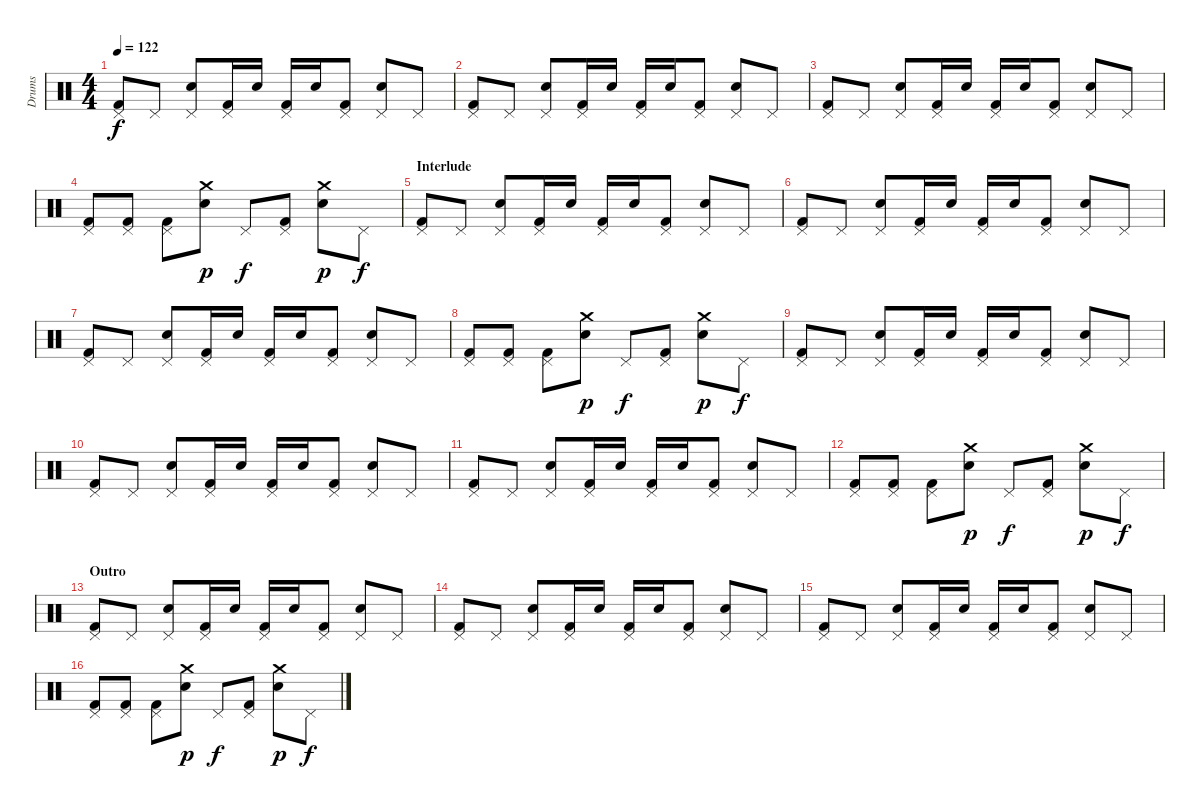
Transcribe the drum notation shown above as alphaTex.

\track ("Drums" "Drums") {instrument percussion}
\staff {score}
\articulation defaults
\ts (4 4)
\tempo 122
\clef neutral
\ks c
("Pedal Hi-Hat (hit)" "Kick (hit) 2").8{dy f} "Pedal Hi-Hat (hit)".8 ("Pedal Hi-Hat (hit)" "Electric Snare (hit)").8 ("Pedal Hi-Hat (hit)" "Kick (hit) 2").16 "Electric Snare (hit)".16 ("Pedal Hi-Hat (hit)" "Kick (hit) 2").16 "Electric Snare (hit)".16 ("Pedal Hi-Hat (hit)" "Kick (hit) 2").8 ("Pedal Hi-Hat (hit)" "Electric Snare (hit)").8 "Pedal Hi-Hat (hit)".8 |
("Pedal Hi-Hat (hit)" "Kick (hit) 2").8 "Pedal Hi-Hat (hit)".8 ("Pedal Hi-Hat (hit)" "Electric Snare (hit)").8 ("Pedal Hi-Hat (hit)" "Kick (hit) 2").16 "Electric Snare (hit)".16 ("Pedal Hi-Hat (hit)" "Kick (hit) 2").16 "Electric Snare (hit)".16 ("Pedal Hi-Hat (hit)" "Kick (hit) 2").8 ("Pedal Hi-Hat (hit)" "Electric Snare (hit)").8 "Pedal Hi-Hat (hit)".8 |
("Pedal Hi-Hat (hit)" "Kick (hit) 2").8 "Pedal Hi-Hat (hit)".8 ("Pedal Hi-Hat (hit)" "Electric Snare (hit)").8 ("Pedal Hi-Hat (hit)" "Kick (hit) 2").16 "Electric Snare (hit)".16 ("Pedal Hi-Hat (hit)" "Kick (hit) 2").16 "Electric Snare (hit)".16 ("Pedal Hi-Hat (hit)" "Kick (hit) 2").8 ("Pedal Hi-Hat (hit)" "Electric Snare (hit)").8 "Pedal Hi-Hat (hit)".8 |
("Pedal Hi-Hat (hit)" "Kick (hit) 2").8 ("Pedal Hi-Hat (hit)" "Kick (hit) 2").8 ("Pedal Hi-Hat (hit)" "Kick (hit) 2").8 ("Crash medium (hit)" "Electric Snare (hit)").8{dy p} "Pedal Hi-Hat (hit)".8{dy f} ("Pedal Hi-Hat (hit)" "Kick (hit) 2").8 ("Crash medium (hit)" "Electric Snare (hit)").8{dy p} "Pedal Hi-Hat (hit)".8{dy f} |
\section ("" "Interlude")
("Pedal Hi-Hat (hit)" "Kick (hit) 2").8 "Pedal Hi-Hat (hit)".8 ("Pedal Hi-Hat (hit)" "Electric Snare (hit)").8 ("Pedal Hi-Hat (hit)" "Kick (hit) 2").16 "Electric Snare (hit)".16 ("Pedal Hi-Hat (hit)" "Kick (hit) 2").16 "Electric Snare (hit)".16 ("Pedal Hi-Hat (hit)" "Kick (hit) 2").8 ("Pedal Hi-Hat (hit)" "Electric Snare (hit)").8 "Pedal Hi-Hat (hit)".8 |
("Pedal Hi-Hat (hit)" "Kick (hit) 2").8 "Pedal Hi-Hat (hit)".8 ("Pedal Hi-Hat (hit)" "Electric Snare (hit)").8 ("Pedal Hi-Hat (hit)" "Kick (hit) 2").16 "Electric Snare (hit)".16 ("Pedal Hi-Hat (hit)" "Kick (hit) 2").16 "Electric Snare (hit)".16 ("Pedal Hi-Hat (hit)" "Kick (hit) 2").8 ("Pedal Hi-Hat (hit)" "Electric Snare (hit)").8 "Pedal Hi-Hat (hit)".8 |
("Pedal Hi-Hat (hit)" "Kick (hit) 2").8 "Pedal Hi-Hat (hit)".8 ("Pedal Hi-Hat (hit)" "Electric Snare (hit)").8 ("Pedal Hi-Hat (hit)" "Kick (hit) 2").16 "Electric Snare (hit)".16 ("Pedal Hi-Hat (hit)" "Kick (hit) 2").16 "Electric Snare (hit)".16 ("Pedal Hi-Hat (hit)" "Kick (hit) 2").8 ("Pedal Hi-Hat (hit)" "Electric Snare (hit)").8 "Pedal Hi-Hat (hit)".8 |
("Pedal Hi-Hat (hit)" "Kick (hit) 2").8 ("Pedal Hi-Hat (hit)" "Kick (hit) 2").8 ("Pedal Hi-Hat (hit)" "Kick (hit) 2").8 ("Crash medium (hit)" "Electric Snare (hit)").8{dy p} "Pedal Hi-Hat (hit)".8{dy f} ("Pedal Hi-Hat (hit)" "Kick (hit) 2").8 ("Crash medium (hit)" "Electric Snare (hit)").8{dy p} "Pedal Hi-Hat (hit)".8{dy f} |
("Pedal Hi-Hat (hit)" "Kick (hit) 2").8 "Pedal Hi-Hat (hit)".8 ("Pedal Hi-Hat (hit)" "Electric Snare (hit)").8 ("Pedal Hi-Hat (hit)" "Kick (hit) 2").16 "Electric Snare (hit)".16 ("Pedal Hi-Hat (hit)" "Kick (hit) 2").16 "Electric Snare (hit)".16 ("Pedal Hi-Hat (hit)" "Kick (hit) 2").8 ("Pedal Hi-Hat (hit)" "Electric Snare (hit)").8 "Pedal Hi-Hat (hit)".8 |
("Pedal Hi-Hat (hit)" "Kick (hit) 2").8 "Pedal Hi-Hat (hit)".8 ("Pedal Hi-Hat (hit)" "Electric Snare (hit)").8 ("Pedal Hi-Hat (hit)" "Kick (hit) 2").16 "Electric Snare (hit)".16 ("Pedal Hi-Hat (hit)" "Kick (hit) 2").16 "Electric Snare (hit)".16 ("Pedal Hi-Hat (hit)" "Kick (hit) 2").8 ("Pedal Hi-Hat (hit)" "Electric Snare (hit)").8 "Pedal Hi-Hat (hit)".8 |
("Pedal Hi-Hat (hit)" "Kick (hit) 2").8 "Pedal Hi-Hat (hit)".8 ("Pedal Hi-Hat (hit)" "Electric Snare (hit)").8 ("Pedal Hi-Hat (hit)" "Kick (hit) 2").16 "Electric Snare (hit)".16 ("Pedal Hi-Hat (hit)" "Kick (hit) 2").16 "Electric Snare (hit)".16 ("Pedal Hi-Hat (hit)" "Kick (hit) 2").8 ("Pedal Hi-Hat (hit)" "Electric Snare (hit)").8 "Pedal Hi-Hat (hit)".8 |
("Pedal Hi-Hat (hit)" "Kick (hit) 2").8 ("Pedal Hi-Hat (hit)" "Kick (hit) 2").8 ("Pedal Hi-Hat (hit)" "Kick (hit) 2").8 ("Crash medium (hit)" "Electric Snare (hit)").8{dy p} "Pedal Hi-Hat (hit)".8{dy f} ("Pedal Hi-Hat (hit)" "Kick (hit) 2").8 ("Crash medium (hit)" "Electric Snare (hit)").8{dy p} "Pedal Hi-Hat (hit)".8{dy f} |
\section ("" "Outro")
("Pedal Hi-Hat (hit)" "Kick (hit) 2").8 "Pedal Hi-Hat (hit)".8 ("Pedal Hi-Hat (hit)" "Electric Snare (hit)").8 ("Pedal Hi-Hat (hit)" "Kick (hit) 2").16 "Electric Snare (hit)".16 ("Pedal Hi-Hat (hit)" "Kick (hit) 2").16 "Electric Snare (hit)".16 ("Pedal Hi-Hat (hit)" "Kick (hit) 2").8 ("Pedal Hi-Hat (hit)" "Electric Snare (hit)").8 "Pedal Hi-Hat (hit)".8 |
("Pedal Hi-Hat (hit)" "Kick (hit) 2").8 "Pedal Hi-Hat (hit)".8 ("Pedal Hi-Hat (hit)" "Electric Snare (hit)").8 ("Pedal Hi-Hat (hit)" "Kick (hit) 2").16 "Electric Snare (hit)".16 ("Pedal Hi-Hat (hit)" "Kick (hit) 2").16 "Electric Snare (hit)".16 ("Pedal Hi-Hat (hit)" "Kick (hit) 2").8 ("Pedal Hi-Hat (hit)" "Electric Snare (hit)").8 "Pedal Hi-Hat (hit)".8 |
("Pedal Hi-Hat (hit)" "Kick (hit) 2").8 "Pedal Hi-Hat (hit)".8 ("Pedal Hi-Hat (hit)" "Electric Snare (hit)").8 ("Pedal Hi-Hat (hit)" "Kick (hit) 2").16 "Electric Snare (hit)".16 ("Pedal Hi-Hat (hit)" "Kick (hit) 2").16 "Electric Snare (hit)".16 ("Pedal Hi-Hat (hit)" "Kick (hit) 2").8 ("Pedal Hi-Hat (hit)" "Electric Snare (hit)").8 "Pedal Hi-Hat (hit)".8 |
("Pedal Hi-Hat (hit)" "Kick (hit) 2").8 ("Pedal Hi-Hat (hit)" "Kick (hit) 2").8 ("Pedal Hi-Hat (hit)" "Kick (hit) 2").8 ("Crash medium (hit)" "Electric Snare (hit)").8{dy p} "Pedal Hi-Hat (hit)".8{dy f} ("Pedal Hi-Hat (hit)" "Kick (hit) 2").8 ("Crash medium (hit)" "Electric Snare (hit)").8{dy p} "Pedal Hi-Hat (hit)".8{dy f}
